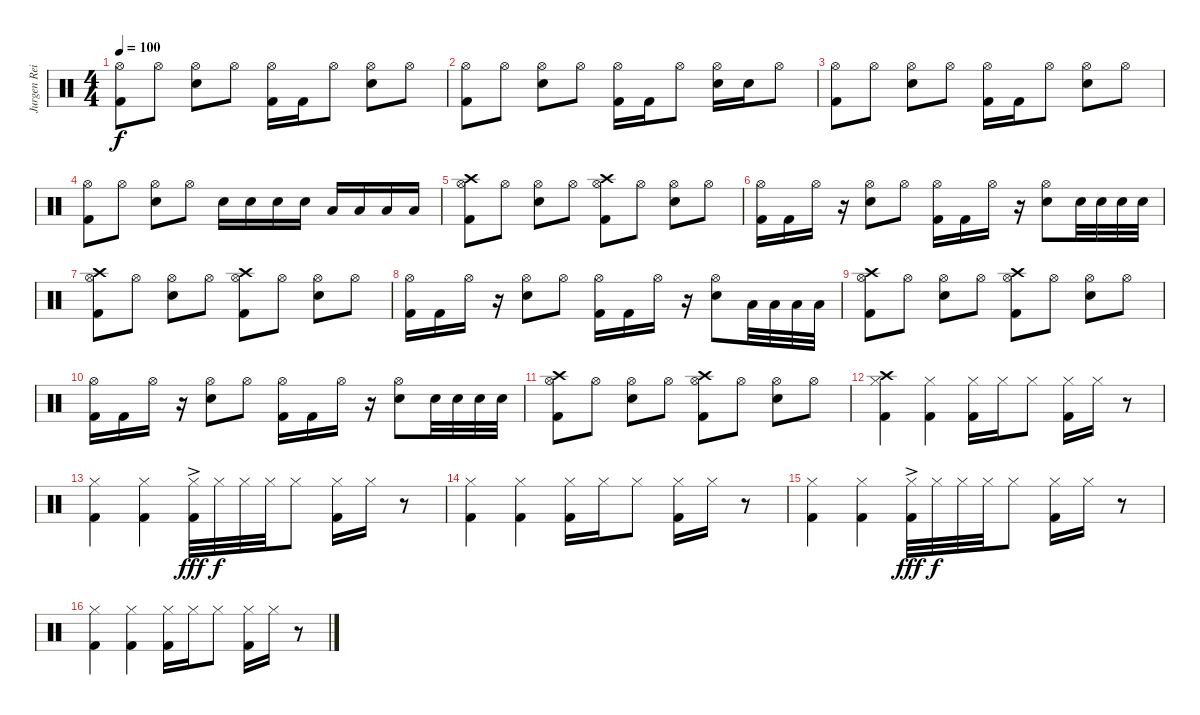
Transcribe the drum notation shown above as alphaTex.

\track ("Jurgen Reil" "Jurgen Rei") {instrument percussion}
\staff {score}
\articulation defaults
\ts (4 4)
\tempo 100
\clef neutral
\ks c
("Kick (hit) 2" "Hi-Hat (open)").8{dy f} "Hi-Hat (open)".8 ("Hi-Hat (open)" "Snare (hit) 2").8 "Hi-Hat (open)".8 ("Kick (hit) 2" "Hi-Hat (open)").16 "Kick (hit) 2".16 "Hi-Hat (open)".8 ("Snare (hit) 2" "Hi-Hat (open)").8 "Hi-Hat (open)".8 |
("Kick (hit) 2" "Hi-Hat (open)").8 "Hi-Hat (open)".8 ("Hi-Hat (open)" "Snare (hit) 2").8 "Hi-Hat (open)".8 ("Kick (hit) 2" "Hi-Hat (open)").16 "Kick (hit) 2".16 "Hi-Hat (open)".8 ("Snare (hit) 2" "Hi-Hat (open)").16 "Snare (hit) 2".16 "Hi-Hat (open)".8 |
("Kick (hit) 2" "Hi-Hat (open)").8 "Hi-Hat (open)".8 ("Hi-Hat (open)" "Snare (hit) 2").8 "Hi-Hat (open)".8 ("Kick (hit) 2" "Hi-Hat (open)").16 "Kick (hit) 2".16 "Hi-Hat (open)".8 ("Snare (hit) 2" "Hi-Hat (open)").8 "Hi-Hat (open)".8 |
("Kick (hit) 2" "Hi-Hat (open)").8 "Hi-Hat (open)".8 ("Hi-Hat (open)" "Snare (hit) 2").8 "Hi-Hat (open)".8 "Snare (hit) 2".16 "Snare (hit) 2".16 "Snare (hit) 2".16 "Snare (hit) 2".16 "Low Tom (hit)".16 "Low Tom (hit)".16 "Low Tom (hit)".16 "Low Tom (hit)".16 |
("Crash high (hit)" "Kick (hit) 2" "Hi-Hat (open)").8 "Hi-Hat (open)".8 ("Snare (hit) 2" "Hi-Hat (open)").8 "Hi-Hat (open)".8 ("Crash high (hit)" "Kick (hit) 2" "Hi-Hat (open)").8 "Hi-Hat (open)".8 ("Snare (hit) 2" "Hi-Hat (open)").8 "Hi-Hat (open)".8 |
("Kick (hit) 2" "Hi-Hat (open)").16 "Kick (hit) 2".16 "Hi-Hat (open)".16 r.16 ("Snare (hit) 2" "Hi-Hat (open)").8 "Hi-Hat (open)".8 ("Kick (hit) 2" "Hi-Hat (open)").16 "Kick (hit) 2".16 "Hi-Hat (open)".16 r.16 ("Snare (hit) 2" "Hi-Hat (open)").8 "Snare (hit) 2".32 "Snare (hit) 2".32 "Snare (hit) 2".32 "Snare (hit) 2".32 |
("Crash high (hit)" "Kick (hit) 2" "Hi-Hat (open)").8 "Hi-Hat (open)".8 ("Snare (hit) 2" "Hi-Hat (open)").8 "Hi-Hat (open)".8 ("Crash high (hit)" "Kick (hit) 2" "Hi-Hat (open)").8 "Hi-Hat (open)".8 ("Snare (hit) 2" "Hi-Hat (open)").8 "Hi-Hat (open)".8 |
("Kick (hit) 2" "Hi-Hat (open)").16 "Kick (hit) 2".16 "Hi-Hat (open)".16 r.16 ("Snare (hit) 2" "Hi-Hat (open)").8 "Hi-Hat (open)".8 ("Kick (hit) 2" "Hi-Hat (open)").16 "Kick (hit) 2".16 "Hi-Hat (open)".16 r.16 ("Snare (hit) 2" "Hi-Hat (open)").8 "Low Tom (hit)".32 "Low Tom (hit)".32 "Low Tom (hit)".32 "Low Tom (hit)".32 |
("Crash high (hit)" "Kick (hit) 2" "Hi-Hat (open)").8 "Hi-Hat (open)".8 ("Snare (hit) 2" "Hi-Hat (open)").8 "Hi-Hat (open)".8 ("Crash high (hit)" "Kick (hit) 2" "Hi-Hat (open)").8 "Hi-Hat (open)".8 ("Snare (hit) 2" "Hi-Hat (open)").8 "Hi-Hat (open)".8 |
("Kick (hit) 2" "Hi-Hat (open)").16 "Kick (hit) 2".16 "Hi-Hat (open)".16 r.16 ("Snare (hit) 2" "Hi-Hat (open)").8 "Hi-Hat (open)".8 ("Kick (hit) 2" "Hi-Hat (open)").16 "Kick (hit) 2".16 "Hi-Hat (open)".16 r.16 ("Snare (hit) 2" "Hi-Hat (open)").8 "Snare (hit) 2".32 "Snare (hit) 2".32 "Snare (hit) 2".32 "Snare (hit) 2".32 |
("Crash high (hit)" "Kick (hit) 2" "Hi-Hat (open)").8 "Hi-Hat (open)".8 ("Snare (hit) 2" "Hi-Hat (open)").8 "Hi-Hat (open)".8 ("Crash high (hit)" "Kick (hit) 2" "Hi-Hat (open)").8 "Hi-Hat (open)".8 ("Snare (hit) 2" "Hi-Hat (open)").8 "Hi-Hat (open)".8 |
("Kick (hit) 2" "Hi-Hat (closed)" "Crash high (hit)").4 ("Kick (hit) 2" "Hi-Hat (closed)").4 ("Kick (hit) 2" "Hi-Hat (closed)").16 "Hi-Hat (closed)".16 "Hi-Hat (closed)".8 ("Kick (hit) 2" "Hi-Hat (closed)").16 "Hi-Hat (closed)".16 r.8 |
("Kick (hit) 2" "Hi-Hat (closed)").4 ("Kick (hit) 2" "Hi-Hat (closed)").4 ("Kick (hit) 2" "Hi-Hat (closed)"{ac}).32{dy fff} "Hi-Hat (closed)".32{dy f} "Hi-Hat (closed)".32 "Hi-Hat (closed)".32 "Hi-Hat (closed)".8 ("Kick (hit) 2" "Hi-Hat (closed)").16 "Hi-Hat (closed)".16 r.8 |
("Kick (hit) 2" "Hi-Hat (closed)").4 ("Kick (hit) 2" "Hi-Hat (closed)").4 ("Kick (hit) 2" "Hi-Hat (closed)").16 "Hi-Hat (closed)".16 "Hi-Hat (closed)".8 ("Kick (hit) 2" "Hi-Hat (closed)").16 "Hi-Hat (closed)".16 r.8 |
("Kick (hit) 2" "Hi-Hat (closed)").4 ("Kick (hit) 2" "Hi-Hat (closed)").4 ("Kick (hit) 2" "Hi-Hat (closed)"{ac}).32{dy fff} "Hi-Hat (closed)".32{dy f} "Hi-Hat (closed)".32 "Hi-Hat (closed)".32 "Hi-Hat (closed)".8 ("Kick (hit) 2" "Hi-Hat (closed)").16 "Hi-Hat (closed)".16 r.8 |
("Kick (hit) 2" "Hi-Hat (closed)").4 ("Kick (hit) 2" "Hi-Hat (closed)").4 ("Kick (hit) 2" "Hi-Hat (closed)").16 "Hi-Hat (closed)".16 "Hi-Hat (closed)".8 ("Kick (hit) 2" "Hi-Hat (closed)").16 "Hi-Hat (closed)".16 r.8
